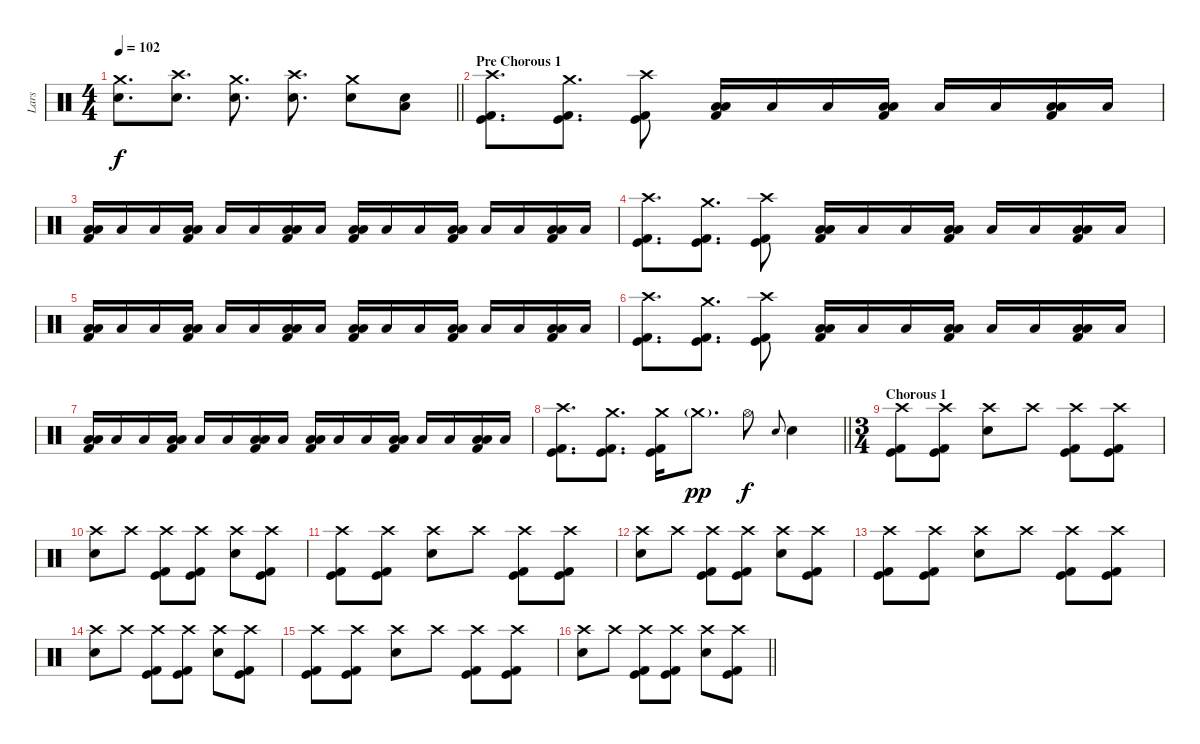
\track ("Lars" "Lars") {instrument percussion}
\staff {score}
\articulation defaults
\ts (4 4)
\tempo 102
\clef neutral
\barLineRight lightlight
\ks c
("Crash medium (hit)" "Electric Snare (hit)").8{d dy f} ("Crash high (hit)" "Electric Snare (hit)").8{d} ("Crash medium (hit)" "Electric Snare (hit)").8{d} ("Crash high (hit)" "Electric Snare (hit)").8{d} ("Crash medium (hit)" "Electric Snare (hit)").8 ("Electric Snare (hit)" "Low Floor Tom (hit)").8 |
\section ("" "Pre Chorous 1")
("Crash high (hit)" "Kick (hit)" "Kick (hit) 2").8{d} ("Crash medium (hit)" "Kick (hit)" "Kick (hit) 2").8{d} ("Crash high (hit)" "Kick (hit)" "Kick (hit) 2").8 ("Low Tom (hit)" "Low Floor Tom (hit)" "Kick (hit) 2").16 "Low Floor Tom (hit)".16 "Low Floor Tom (hit)".16 ("Low Tom (hit)" "Low Floor Tom (hit)" "Kick (hit) 2").16 "Low Floor Tom (hit)".16 "Low Floor Tom (hit)".16 ("Low Tom (hit)" "Low Floor Tom (hit)" "Kick (hit) 2").16 "Low Floor Tom (hit)".16 |
("Low Tom (hit)" "Low Floor Tom (hit)" "Kick (hit) 2").16 "Low Floor Tom (hit)".16 "Low Floor Tom (hit)".16 ("Low Tom (hit)" "Low Floor Tom (hit)" "Kick (hit) 2").16 "Low Floor Tom (hit)".16 "Low Floor Tom (hit)".16 ("Low Tom (hit)" "Low Floor Tom (hit)" "Kick (hit) 2").16 "Low Floor Tom (hit)".16 ("Low Tom (hit)" "Low Floor Tom (hit)" "Kick (hit) 2").16 "Low Floor Tom (hit)".16 "Low Floor Tom (hit)".16 ("Low Tom (hit)" "Low Floor Tom (hit)" "Kick (hit) 2").16 "Low Floor Tom (hit)".16 "Low Floor Tom (hit)".16 ("Low Tom (hit)" "Low Floor Tom (hit)" "Kick (hit) 2").16 "Low Floor Tom (hit)".16 |
("Crash high (hit)" "Kick (hit)" "Kick (hit) 2").8{d} ("Crash medium (hit)" "Kick (hit)" "Kick (hit) 2").8{d} ("Crash high (hit)" "Kick (hit)" "Kick (hit) 2").8 ("Low Tom (hit)" "Low Floor Tom (hit)" "Kick (hit) 2").16 "Low Floor Tom (hit)".16 "Low Floor Tom (hit)".16 ("Low Tom (hit)" "Low Floor Tom (hit)" "Kick (hit) 2").16 "Low Floor Tom (hit)".16 "Low Floor Tom (hit)".16 ("Low Tom (hit)" "Low Floor Tom (hit)" "Kick (hit) 2").16 "Low Floor Tom (hit)".16 |
("Low Tom (hit)" "Low Floor Tom (hit)" "Kick (hit) 2").16 "Low Floor Tom (hit)".16 "Low Floor Tom (hit)".16 ("Low Tom (hit)" "Low Floor Tom (hit)" "Kick (hit) 2").16 "Low Floor Tom (hit)".16 "Low Floor Tom (hit)".16 ("Low Tom (hit)" "Low Floor Tom (hit)" "Kick (hit) 2").16 "Low Floor Tom (hit)".16 ("Low Tom (hit)" "Low Floor Tom (hit)" "Kick (hit) 2").16 "Low Floor Tom (hit)".16 "Low Floor Tom (hit)".16 ("Low Tom (hit)" "Low Floor Tom (hit)" "Kick (hit) 2").16 "Low Floor Tom (hit)".16 "Low Floor Tom (hit)".16 ("Low Tom (hit)" "Low Floor Tom (hit)" "Kick (hit) 2").16 "Low Floor Tom (hit)".16 |
("Crash high (hit)" "Kick (hit)" "Kick (hit) 2").8{d} ("Crash medium (hit)" "Kick (hit)" "Kick (hit) 2").8{d} ("Crash high (hit)" "Kick (hit)" "Kick (hit) 2").8 ("Low Tom (hit)" "Low Floor Tom (hit)" "Kick (hit) 2").16 "Low Floor Tom (hit)".16 "Low Floor Tom (hit)".16 ("Low Tom (hit)" "Low Floor Tom (hit)" "Kick (hit) 2").16 "Low Floor Tom (hit)".16 "Low Floor Tom (hit)".16 ("Low Tom (hit)" "Low Floor Tom (hit)" "Kick (hit) 2").16 "Low Floor Tom (hit)".16 |
("Low Tom (hit)" "Low Floor Tom (hit)" "Kick (hit) 2").16 "Low Floor Tom (hit)".16 "Low Floor Tom (hit)".16 ("Low Tom (hit)" "Low Floor Tom (hit)" "Kick (hit) 2").16 "Low Floor Tom (hit)".16 "Low Floor Tom (hit)".16 ("Low Tom (hit)" "Low Floor Tom (hit)" "Kick (hit) 2").16 "Low Floor Tom (hit)".16 ("Low Tom (hit)" "Low Floor Tom (hit)" "Kick (hit) 2").16 "Low Floor Tom (hit)".16 "Low Floor Tom (hit)".16 ("Low Tom (hit)" "Low Floor Tom (hit)" "Kick (hit) 2").16 "Low Floor Tom (hit)".16 "Low Floor Tom (hit)".16 ("Low Tom (hit)" "Low Floor Tom (hit)" "Kick (hit) 2").16 "Low Floor Tom (hit)".16 |
\barLineRight lightlight
("Crash high (hit)" "Kick (hit)" "Kick (hit) 2").8{d} ("Crash medium (hit)" "Kick (hit)" "Kick (hit) 2").8{d} ("Crash medium (hit)" "Kick (hit)" "Kick (hit) 2").16 "Crash medium (hit)"{g}.8{d dy pp} "Hi-Hat (open)".8{dy f} "Electric Snare (hit)".8{gr onbeat} "Electric Snare (hit)".4 |
\ts (3 4)
\section ("" "Chorous 1")
("Crash high (hit)" "Kick (hit)" "Kick (hit) 2").8 ("Crash high (hit)" "Kick (hit)" "Kick (hit) 2").8 ("Crash high (hit)" "Electric Snare (hit)").8 "Crash high (hit)".8 ("Crash high (hit)" "Kick (hit)" "Kick (hit) 2").8 ("Crash high (hit)" "Kick (hit)" "Kick (hit) 2").8 |
("Crash high (hit)" "Electric Snare (hit)").8 "Crash high (hit)".8 ("Crash high (hit)" "Kick (hit)" "Kick (hit) 2").8 ("Crash high (hit)" "Kick (hit)" "Kick (hit) 2").8 ("Crash high (hit)" "Electric Snare (hit)").8 ("Crash high (hit)" "Kick (hit)" "Kick (hit) 2").8 |
("Crash high (hit)" "Kick (hit)" "Kick (hit) 2").8 ("Crash high (hit)" "Kick (hit)" "Kick (hit) 2").8 ("Crash high (hit)" "Electric Snare (hit)").8 "Crash high (hit)".8 ("Crash high (hit)" "Kick (hit)" "Kick (hit) 2").8 ("Crash high (hit)" "Kick (hit)" "Kick (hit) 2").8 |
("Crash high (hit)" "Electric Snare (hit)").8 "Crash high (hit)".8 ("Crash high (hit)" "Kick (hit)" "Kick (hit) 2").8 ("Crash high (hit)" "Kick (hit)" "Kick (hit) 2").8 ("Crash high (hit)" "Electric Snare (hit)").8 ("Crash high (hit)" "Kick (hit)" "Kick (hit) 2").8 |
("Crash high (hit)" "Kick (hit)" "Kick (hit) 2").8 ("Crash high (hit)" "Kick (hit)" "Kick (hit) 2").8 ("Crash high (hit)" "Electric Snare (hit)").8 "Crash high (hit)".8 ("Crash high (hit)" "Kick (hit)" "Kick (hit) 2").8 ("Crash high (hit)" "Kick (hit)" "Kick (hit) 2").8 |
("Crash high (hit)" "Electric Snare (hit)").8 "Crash high (hit)".8 ("Crash high (hit)" "Kick (hit)" "Kick (hit) 2").8 ("Crash high (hit)" "Kick (hit)" "Kick (hit) 2").8 ("Crash high (hit)" "Electric Snare (hit)").8 ("Crash high (hit)" "Kick (hit)" "Kick (hit) 2").8 |
("Crash high (hit)" "Kick (hit)" "Kick (hit) 2").8 ("Crash high (hit)" "Kick (hit)" "Kick (hit) 2").8 ("Crash high (hit)" "Electric Snare (hit)").8 "Crash high (hit)".8 ("Crash high (hit)" "Kick (hit)" "Kick (hit) 2").8 ("Crash high (hit)" "Kick (hit)" "Kick (hit) 2").8 |
\barLineRight lightlight
("Crash high (hit)" "Electric Snare (hit)").8 "Crash high (hit)".8 ("Crash high (hit)" "Kick (hit)" "Kick (hit) 2").8 ("Crash high (hit)" "Kick (hit)" "Kick (hit) 2").8 ("Crash high (hit)" "Electric Snare (hit)").8 ("Crash high (hit)" "Kick (hit)" "Kick (hit) 2").8
